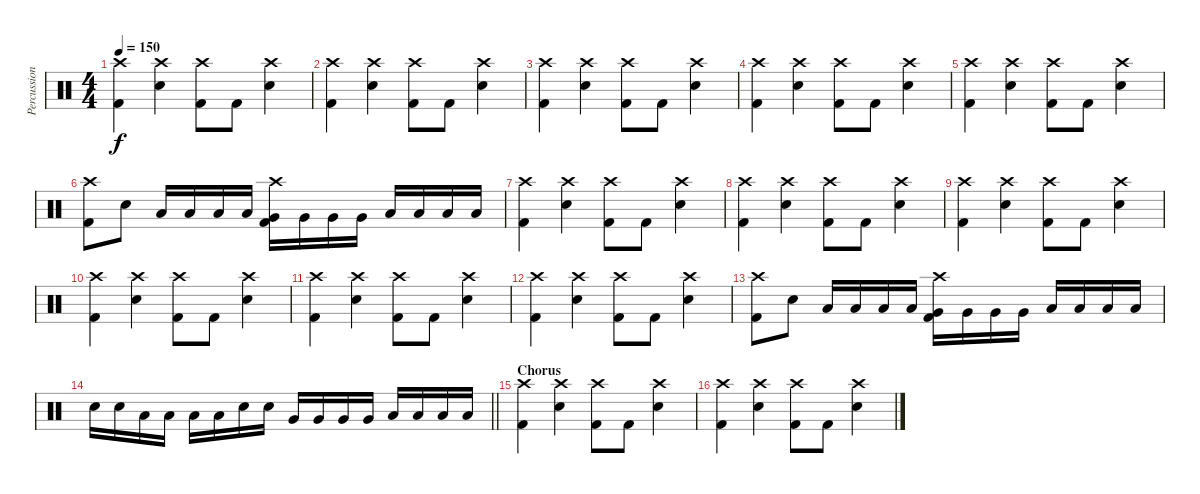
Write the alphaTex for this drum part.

\track ("Percussion" "Percussion") {instrument percussion}
\staff {score}
\articulation defaults
\ts (4 4)
\tempo 150
\clef neutral
\ks c
("Crash high (hit)" "Kick (hit) 2").4{dy f} ("Crash high (hit)" "Electric Snare (hit)").4 ("Crash high (hit)" "Kick (hit) 2").8 "Kick (hit) 2".8 ("Crash high (hit)" "Electric Snare (hit)").4 |
("Crash high (hit)" "Kick (hit) 2").4 ("Crash high (hit)" "Electric Snare (hit)").4 ("Crash high (hit)" "Kick (hit) 2").8 "Kick (hit) 2".8 ("Crash high (hit)" "Electric Snare (hit)").4 |
("Crash high (hit)" "Kick (hit) 2").4 ("Crash high (hit)" "Electric Snare (hit)").4 ("Crash high (hit)" "Kick (hit) 2").8 "Kick (hit) 2".8 ("Crash high (hit)" "Electric Snare (hit)").4 |
("Crash high (hit)" "Kick (hit) 2").4 ("Crash high (hit)" "Electric Snare (hit)").4 ("Crash high (hit)" "Kick (hit) 2").8 "Kick (hit) 2".8 ("Crash high (hit)" "Electric Snare (hit)").4 |
("Crash high (hit)" "Kick (hit) 2").4 ("Crash high (hit)" "Electric Snare (hit)").4 ("Crash high (hit)" "Kick (hit) 2").8 "Kick (hit) 2".8 ("Crash high (hit)" "Electric Snare (hit)").4 |
("Crash high (hit)" "Kick (hit) 2").8 "Electric Snare (hit)".8 "Low Tom (hit)".16 "Low Tom (hit)".16 "Low Tom (hit)".16 "Low Tom (hit)".16 ("Crash high (hit)" "Very Low Tom (hit)" "Kick (hit) 2").16 "Very Low Tom (hit)".16 "Very Low Tom (hit)".16 "Very Low Tom (hit)".16 "Low Floor Tom (hit)".16 "Low Floor Tom (hit)".16 "Low Floor Tom (hit)".16 "Low Floor Tom (hit)".16 |
("Crash high (hit)" "Kick (hit) 2").4 ("Crash high (hit)" "Electric Snare (hit)").4 ("Crash high (hit)" "Kick (hit) 2").8 "Kick (hit) 2".8 ("Crash high (hit)" "Electric Snare (hit)").4 |
("Crash high (hit)" "Kick (hit) 2").4 ("Crash high (hit)" "Electric Snare (hit)").4 ("Crash high (hit)" "Kick (hit) 2").8 "Kick (hit) 2".8 ("Crash high (hit)" "Electric Snare (hit)").4 |
("Crash high (hit)" "Kick (hit) 2").4 ("Crash high (hit)" "Electric Snare (hit)").4 ("Crash high (hit)" "Kick (hit) 2").8 "Kick (hit) 2".8 ("Crash high (hit)" "Electric Snare (hit)").4 |
("Crash high (hit)" "Kick (hit) 2").4 ("Crash high (hit)" "Electric Snare (hit)").4 ("Crash high (hit)" "Kick (hit) 2").8 "Kick (hit) 2".8 ("Crash high (hit)" "Electric Snare (hit)").4 |
("Crash high (hit)" "Kick (hit) 2").4 ("Crash high (hit)" "Electric Snare (hit)").4 ("Crash high (hit)" "Kick (hit) 2").8 "Kick (hit) 2".8 ("Crash high (hit)" "Electric Snare (hit)").4 |
("Crash high (hit)" "Kick (hit) 2").4 ("Crash high (hit)" "Electric Snare (hit)").4 ("Crash high (hit)" "Kick (hit) 2").8 "Kick (hit) 2".8 ("Crash high (hit)" "Electric Snare (hit)").4 |
("Crash high (hit)" "Kick (hit) 2").8 "Electric Snare (hit)".8 "Low Tom (hit)".16 "Low Tom (hit)".16 "Low Tom (hit)".16 "Low Tom (hit)".16 ("Crash high (hit)" "Very Low Tom (hit)" "Kick (hit) 2").16 "Very Low Tom (hit)".16 "Very Low Tom (hit)".16 "Very Low Tom (hit)".16 "Low Floor Tom (hit)".16 "Low Floor Tom (hit)".16 "Low Floor Tom (hit)".16 "Low Floor Tom (hit)".16 |
\barLineRight lightlight "Electric Snare (hit)".16 "Electric Snare (hit)".16 "Low Tom (hit)".16 "Low Tom (hit)".16 "Low Tom (hit)".16 "Low Tom (hit)".16 "Electric Snare (hit)".16 "Electric Snare (hit)".16 "Very Low Tom (hit)".16 "Very Low Tom (hit)".16 "Very Low Tom (hit)".16 "Very Low Tom (hit)".16 "Low Floor Tom (hit)".16 "Low Floor Tom (hit)".16 "Low Floor Tom (hit)".16 "Low Floor Tom (hit)".16
|
\section ("" "Chorus")
("Crash high (hit)" "Kick (hit) 2").4 ("Crash high (hit)" "Electric Snare (hit)").4 ("Crash high (hit)" "Kick (hit) 2").8 "Kick (hit) 2".8 ("Crash high (hit)" "Electric Snare (hit)").4 |
("Crash high (hit)" "Kick (hit) 2").4 ("Crash high (hit)" "Electric Snare (hit)").4 ("Crash high (hit)" "Kick (hit) 2").8 "Kick (hit) 2".8 ("Crash high (hit)" "Electric Snare (hit)").4
